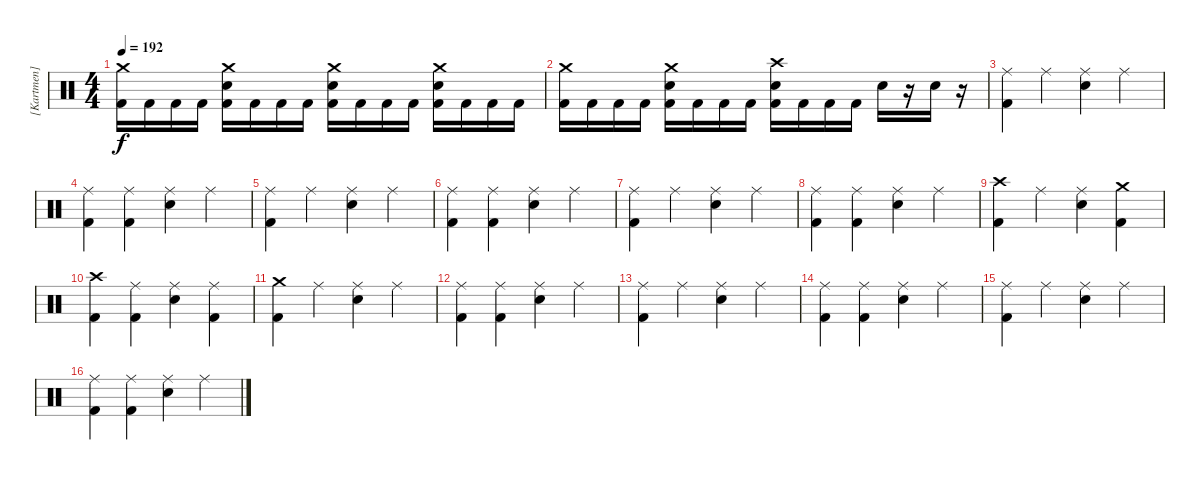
\track ("[Kartmen] - Drums" "[Kartmen] ") {instrument percussion}
\staff {score}
\articulation defaults
\ts (4 4)
\tempo 192
\clef neutral
\ks c
("Crash medium (hit)" "Kick (hit) 2").16{dy f} "Kick (hit) 2".16 "Kick (hit) 2".16 "Kick (hit) 2".16 ("Crash medium (hit)" "Kick (hit) 2" "Snare (hit) 2").16 "Kick (hit) 2".16 "Kick (hit) 2".16 "Kick (hit) 2".16 ("Crash medium (hit)" "Kick (hit) 2" "Snare (hit) 2").16 "Kick (hit) 2".16 "Kick (hit) 2".16 "Kick (hit) 2".16 ("Crash medium (hit)" "Kick (hit) 2" "Snare (hit) 2").16 "Kick (hit) 2".16 "Kick (hit) 2".16 "Kick (hit) 2".16 |
("Crash medium (hit)" "Kick (hit) 2").16 "Kick (hit) 2".16 "Kick (hit) 2".16 "Kick (hit) 2".16 ("Crash medium (hit)" "Kick (hit) 2" "Snare (hit) 2").16 "Kick (hit) 2".16 "Kick (hit) 2".16 "Kick (hit) 2".16 ("Crash high (hit)" "Kick (hit) 2" "Snare (hit) 2").16 "Kick (hit) 2".16 "Kick (hit) 2".16 "Kick (hit) 2".16 "Snare (hit) 2".16 r.16 "Snare (hit) 2".16 r.16 |
("Ride (middle)" "Kick (hit) 2").4 "Ride (middle)".4 ("Ride (middle)" "Snare (hit) 2").4 "Ride (middle)".4 |
("Ride (middle)" "Kick (hit) 2").4 ("Ride (middle)" "Kick (hit) 2").4 ("Ride (middle)" "Snare (hit) 2").4 "Ride (middle)".4 |
("Ride (middle)" "Kick (hit) 2").4 "Ride (middle)".4 ("Ride (middle)" "Snare (hit) 2").4 "Ride (middle)".4 |
("Ride (middle)" "Kick (hit) 2").4 ("Ride (middle)" "Kick (hit) 2").4 ("Ride (middle)" "Snare (hit) 2").4 "Ride (middle)".4 |
("Ride (middle)" "Kick (hit) 2").4 "Ride (middle)".4 ("Ride (middle)" "Snare (hit) 2").4 "Ride (middle)".4 |
("Ride (middle)" "Kick (hit) 2").4 ("Ride (middle)" "Kick (hit) 2").4 ("Ride (middle)" "Snare (hit) 2").4 "Ride (middle)"{tr (51 16)}.4 |
("Crash high (hit)" "Kick (hit) 2").4 "Ride (middle)".4 ("Ride (middle)" "Snare (hit) 2").4 ("Crash medium (hit)" "Kick (hit) 2").4 |
("Crash high (hit)" "Kick (hit) 2").4 ("Ride (middle)" "Kick (hit) 2").4 ("Ride (middle)" "Snare (hit) 2").4 ("Ride (middle)" "Kick (hit) 2"{tr (36 16)}).4 |
("Crash medium (hit)" "Kick (hit) 2").4 "Ride (middle)".4 ("Ride (middle)" "Snare (hit) 2").4 "Ride (middle)".4 |
("Ride (middle)" "Kick (hit) 2").4 ("Ride (middle)" "Kick (hit) 2").4 ("Ride (middle)" "Snare (hit) 2").4 "Ride (middle)".4 |
("Ride (middle)" "Kick (hit) 2").4 "Ride (middle)".4 ("Ride (middle)" "Snare (hit) 2").4 "Ride (middle)".4 |
("Ride (middle)" "Kick (hit) 2").4 ("Ride (middle)" "Kick (hit) 2").4 ("Ride (middle)" "Snare (hit) 2").4 "Ride (middle)".4 |
("Ride (middle)" "Kick (hit) 2").4 "Ride (middle)".4 ("Ride (middle)" "Snare (hit) 2").4 "Ride (middle)".4 |
("Ride (middle)" "Kick (hit) 2").4 ("Ride (middle)" "Kick (hit) 2").4 ("Ride (middle)" "Snare (hit) 2").4 "Ride (middle)"{tr (51 16)}.4
